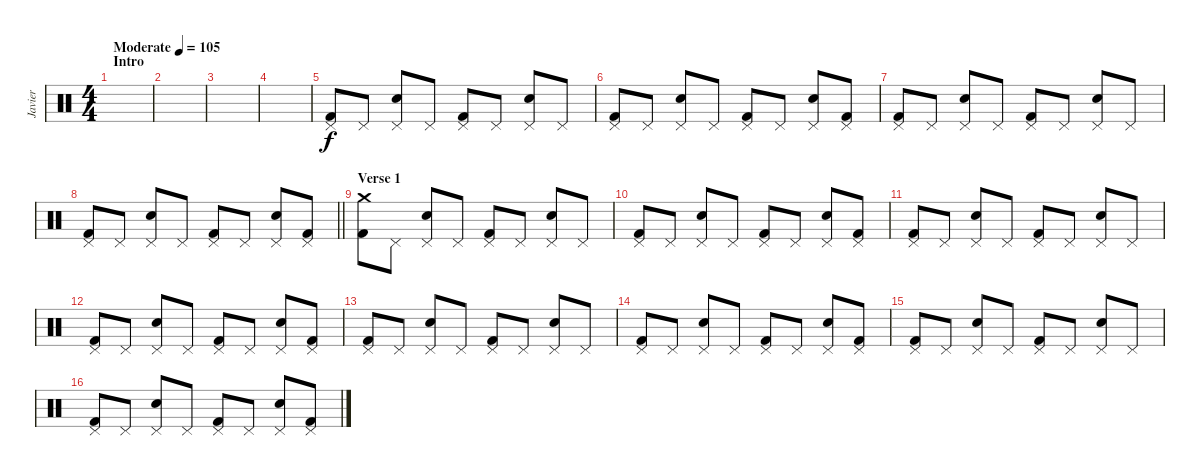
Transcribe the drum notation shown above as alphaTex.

\track ("Javier" "Javier") {instrument percussion}
\staff {score}
\articulation defaults
\ts (4 4)
\section ("" "Intro")
\tempo (105 "Moderate")
\clef neutral
\ks c
|
|
|
|
("Pedal Hi-Hat (hit)" "Kick (hit) 2").8 "Pedal Hi-Hat (hit)".8 ("Pedal Hi-Hat (hit)" "Snare (hit) 2").8 "Pedal Hi-Hat (hit)".8 ("Pedal Hi-Hat (hit)" "Kick (hit) 2").8 "Pedal Hi-Hat (hit)".8 ("Pedal Hi-Hat (hit)" "Snare (hit) 2").8 "Pedal Hi-Hat (hit)".8 |
("Pedal Hi-Hat (hit)" "Kick (hit) 2").8 "Pedal Hi-Hat (hit)".8 ("Pedal Hi-Hat (hit)" "Snare (hit) 2").8 "Pedal Hi-Hat (hit)".8 ("Pedal Hi-Hat (hit)" "Kick (hit) 2").8 "Pedal Hi-Hat (hit)".8 ("Pedal Hi-Hat (hit)" "Snare (hit) 2").8 ("Pedal Hi-Hat (hit)" "Kick (hit) 2").8 |
("Pedal Hi-Hat (hit)" "Kick (hit) 2").8 "Pedal Hi-Hat (hit)".8 ("Pedal Hi-Hat (hit)" "Snare (hit) 2").8 "Pedal Hi-Hat (hit)".8 ("Pedal Hi-Hat (hit)" "Kick (hit) 2").8 "Pedal Hi-Hat (hit)".8 ("Pedal Hi-Hat (hit)" "Snare (hit) 2").8 "Pedal Hi-Hat (hit)".8 |
\barLineRight lightlight
("Pedal Hi-Hat (hit)" "Kick (hit) 2").8 "Pedal Hi-Hat (hit)".8 ("Pedal Hi-Hat (hit)" "Snare (hit) 2").8 "Pedal Hi-Hat (hit)".8 ("Pedal Hi-Hat (hit)" "Kick (hit) 2").8 "Pedal Hi-Hat (hit)".8 ("Pedal Hi-Hat (hit)" "Snare (hit) 2").8 ("Pedal Hi-Hat (hit)" "Kick (hit) 2").8 |
\section ("" "Verse 1")
("Crash medium (hit)" "Kick (hit) 2").8 "Pedal Hi-Hat (hit)".8 ("Pedal Hi-Hat (hit)" "Snare (hit) 2").8 "Pedal Hi-Hat (hit)".8 ("Pedal Hi-Hat (hit)" "Kick (hit) 2").8 "Pedal Hi-Hat (hit)".8 ("Pedal Hi-Hat (hit)" "Snare (hit) 2").8 "Pedal Hi-Hat (hit)".8 |
("Pedal Hi-Hat (hit)" "Kick (hit) 2").8 "Pedal Hi-Hat (hit)".8 ("Pedal Hi-Hat (hit)" "Snare (hit) 2").8 "Pedal Hi-Hat (hit)".8 ("Pedal Hi-Hat (hit)" "Kick (hit) 2").8 "Pedal Hi-Hat (hit)".8 ("Pedal Hi-Hat (hit)" "Snare (hit) 2").8 ("Pedal Hi-Hat (hit)" "Kick (hit) 2").8 |
("Pedal Hi-Hat (hit)" "Kick (hit) 2").8 "Pedal Hi-Hat (hit)".8 ("Pedal Hi-Hat (hit)" "Snare (hit) 2").8 "Pedal Hi-Hat (hit)".8 ("Pedal Hi-Hat (hit)" "Kick (hit) 2").8 "Pedal Hi-Hat (hit)".8 ("Pedal Hi-Hat (hit)" "Snare (hit) 2").8 "Pedal Hi-Hat (hit)".8 |
("Pedal Hi-Hat (hit)" "Kick (hit) 2").8 "Pedal Hi-Hat (hit)".8 ("Pedal Hi-Hat (hit)" "Snare (hit) 2").8 "Pedal Hi-Hat (hit)".8 ("Pedal Hi-Hat (hit)" "Kick (hit) 2").8 "Pedal Hi-Hat (hit)".8 ("Pedal Hi-Hat (hit)" "Snare (hit) 2").8 ("Pedal Hi-Hat (hit)" "Kick (hit) 2").8 |
("Pedal Hi-Hat (hit)" "Kick (hit) 2").8 "Pedal Hi-Hat (hit)".8 ("Pedal Hi-Hat (hit)" "Snare (hit) 2").8 "Pedal Hi-Hat (hit)".8 ("Pedal Hi-Hat (hit)" "Kick (hit) 2").8 "Pedal Hi-Hat (hit)".8 ("Pedal Hi-Hat (hit)" "Snare (hit) 2").8 "Pedal Hi-Hat (hit)".8 |
("Pedal Hi-Hat (hit)" "Kick (hit) 2").8 "Pedal Hi-Hat (hit)".8 ("Pedal Hi-Hat (hit)" "Snare (hit) 2").8 "Pedal Hi-Hat (hit)".8 ("Pedal Hi-Hat (hit)" "Kick (hit) 2").8 "Pedal Hi-Hat (hit)".8 ("Pedal Hi-Hat (hit)" "Snare (hit) 2").8 ("Pedal Hi-Hat (hit)" "Kick (hit) 2").8 |
("Pedal Hi-Hat (hit)" "Kick (hit) 2").8 "Pedal Hi-Hat (hit)".8 ("Pedal Hi-Hat (hit)" "Snare (hit) 2").8 "Pedal Hi-Hat (hit)".8 ("Pedal Hi-Hat (hit)" "Kick (hit) 2").8 "Pedal Hi-Hat (hit)".8 ("Pedal Hi-Hat (hit)" "Snare (hit) 2").8 "Pedal Hi-Hat (hit)".8 |
("Pedal Hi-Hat (hit)" "Kick (hit) 2").8 "Pedal Hi-Hat (hit)".8 ("Pedal Hi-Hat (hit)" "Snare (hit) 2").8 "Pedal Hi-Hat (hit)".8 ("Pedal Hi-Hat (hit)" "Kick (hit) 2").8 "Pedal Hi-Hat (hit)".8 ("Pedal Hi-Hat (hit)" "Snare (hit) 2").8 ("Pedal Hi-Hat (hit)" "Kick (hit) 2").8
